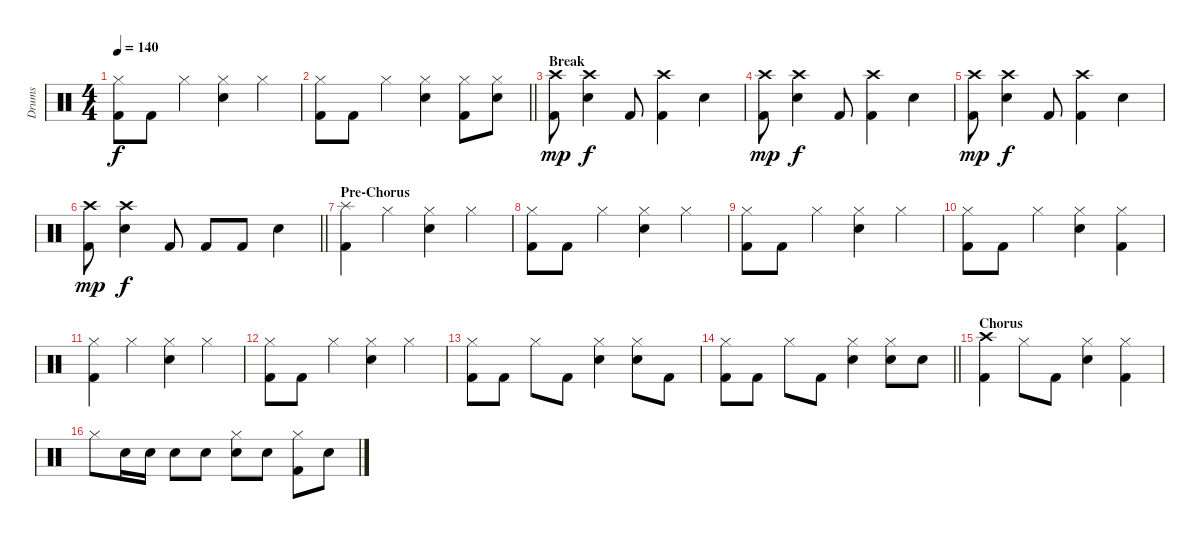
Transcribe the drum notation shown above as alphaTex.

\track ("Drums" "Drums") {instrument percussion}
\staff {score}
\articulation defaults
\ts (4 4)
\tempo 140
\clef neutral
\ks c
("Hi-Hat (closed)" "Kick (hit) 2").8{dy f} "Kick (hit) 2".8 "Hi-Hat (closed)".4 ("Hi-Hat (closed)" "Snare (hit) 2").4 "Hi-Hat (closed)".4 |
\barLineRight lightlight
("Hi-Hat (closed)" "Kick (hit) 2").8 "Kick (hit) 2".8 "Hi-Hat (closed)".4 ("Hi-Hat (closed)" "Snare (hit) 2").4 ("Hi-Hat (closed)" "Kick (hit) 2").8 ("Hi-Hat (closed)" "Snare (hit) 2").8 |
\section ("" "Break")
("Crash high (hit)" "Kick (hit) 2").8{dy mp} ("Crash high (hit)" "Snare (hit) 2").4{dy f} "Kick (hit) 2".8 ("Crash high (hit)" "Kick (hit) 2").4 "Snare (hit) 2".4 |
("Crash high (hit)" "Kick (hit) 2").8{dy mp} ("Crash high (hit)" "Snare (hit) 2").4{dy f} "Kick (hit) 2".8 ("Crash high (hit)" "Kick (hit) 2").4 "Snare (hit) 2".4 |
("Crash high (hit)" "Kick (hit) 2").8{dy mp} ("Crash high (hit)" "Snare (hit) 2").4{dy f} "Kick (hit) 2".8 ("Crash high (hit)" "Kick (hit) 2").4 "Snare (hit) 2".4 |
\barLineRight lightlight
("Crash high (hit)" "Kick (hit) 2").8{dy mp} ("Crash high (hit)" "Snare (hit) 2").4{dy f} "Kick (hit) 2".8 "Kick (hit) 2".8 "Kick (hit) 2".8 "Snare (hit) 2".4 |
\section ("" "Pre-Chorus")
("Splash (hit)" "Kick (hit) 2").4 "Hi-Hat (closed)".4 ("Hi-Hat (closed)" "Snare (hit) 2").4 "Hi-Hat (closed)".4 |
("Hi-Hat (closed)" "Kick (hit) 2").8 "Kick (hit) 2".8 "Hi-Hat (closed)".4 ("Hi-Hat (closed)" "Snare (hit) 2").4 "Hi-Hat (closed)".4 |
("Hi-Hat (closed)" "Kick (hit) 2").8 "Kick (hit) 2".8 "Hi-Hat (closed)".4 ("Hi-Hat (closed)" "Snare (hit) 2").4 "Hi-Hat (closed)".4 |
("Hi-Hat (closed)" "Kick (hit) 2").8 "Kick (hit) 2".8 "Hi-Hat (closed)".4 ("Hi-Hat (closed)" "Snare (hit) 2").4 ("Hi-Hat (closed)" "Kick (hit) 2").4 |
("Hi-Hat (closed)" "Kick (hit) 2").4 "Hi-Hat (closed)".4 ("Hi-Hat (closed)" "Snare (hit) 2").4 "Hi-Hat (closed)".4 |
("Hi-Hat (closed)" "Kick (hit) 2").8 "Kick (hit) 2".8 "Hi-Hat (closed)".4 ("Hi-Hat (closed)" "Snare (hit) 2").4 "Hi-Hat (closed)".4 |
("Hi-Hat (closed)" "Kick (hit) 2").8 "Kick (hit) 2".8 "Hi-Hat (closed)".8 "Kick (hit) 2".8 ("Hi-Hat (closed)" "Snare (hit) 2").4 ("Hi-Hat (closed)" "Snare (hit) 2").8 "Kick (hit) 2".8 |
\barLineRight lightlight
("Hi-Hat (closed)" "Kick (hit) 2").8 "Kick (hit) 2".8 "Hi-Hat (closed)".8 "Kick (hit) 2".8 ("Hi-Hat (closed)" "Snare (hit) 2").4 ("Hi-Hat (closed)" "Snare (hit) 2").8 "Snare (hit) 2".8 |
\section ("" "Chorus")
("Crash high (hit)" "Kick (hit) 2").4 "Hi-Hat (closed)".8 "Kick (hit) 2".8 ("Hi-Hat (closed)" "Snare (hit) 2").4 ("Hi-Hat (closed)" "Kick (hit) 2").4 |
"Hi-Hat (closed)".8 "Snare (hit) 2".16 "Electric Snare (hit)".16 "Snare (hit) 2".8 "Electric Snare (hit)".8 ("Hi-Hat (closed)" "Snare (hit) 2").8 "Electric Snare (hit)".8 ("Hi-Hat (closed)" "Kick (hit) 2").8 "Electric Snare (hit)".8
